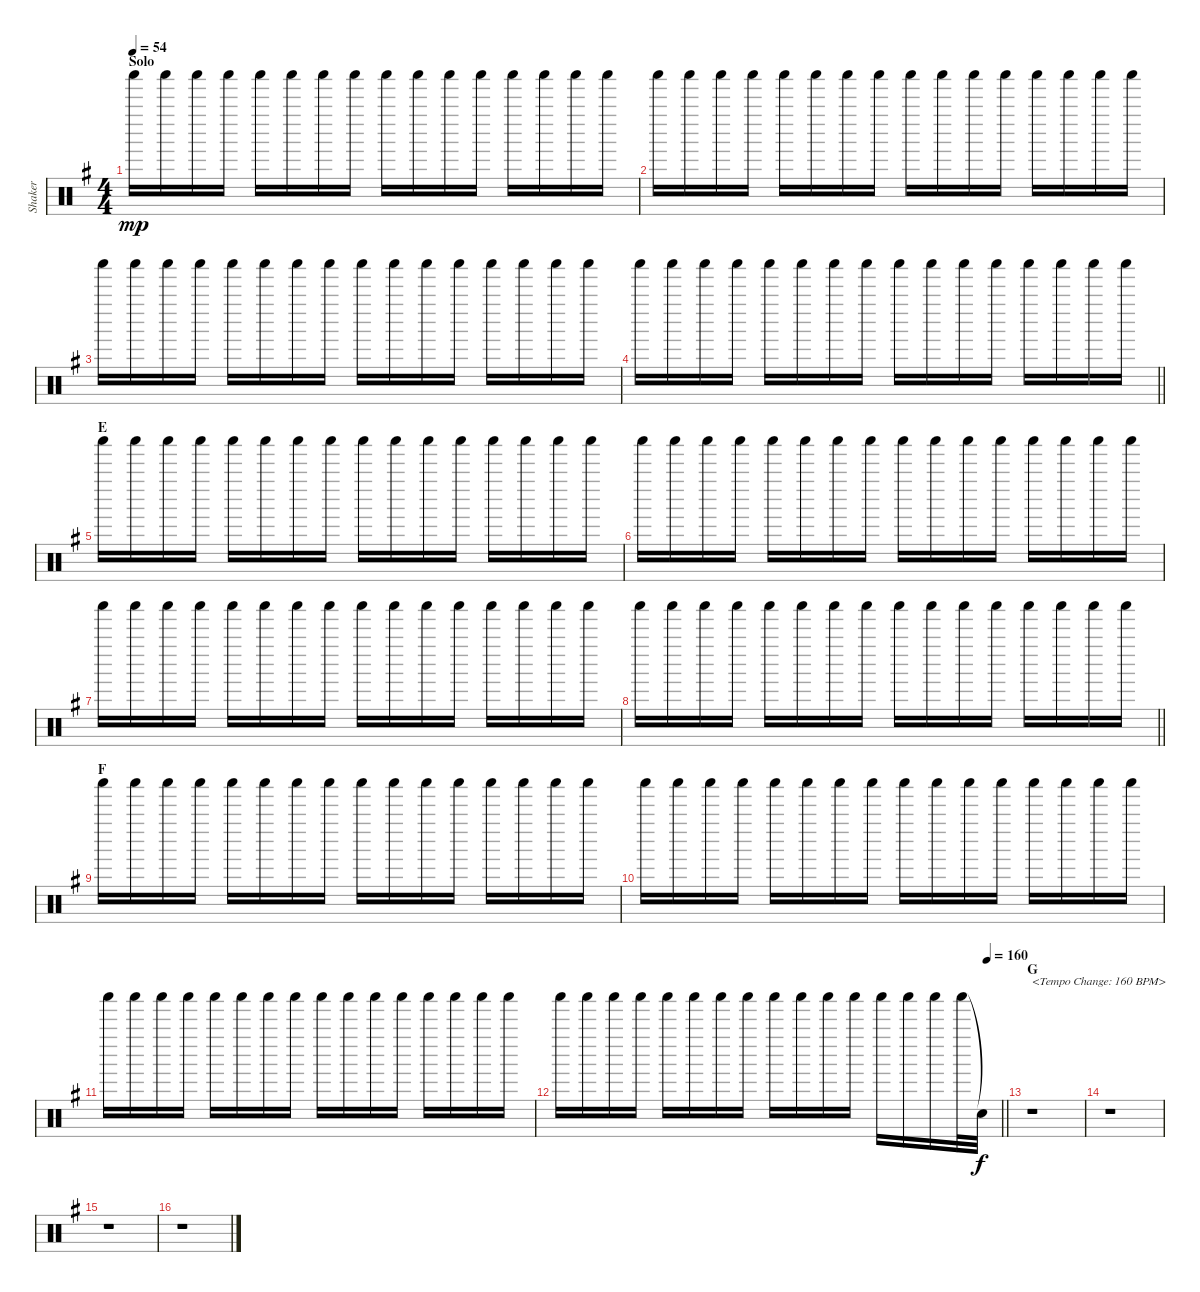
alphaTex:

\track ("Shaker" "Shaker") {instrument percussion}
\staff {score}
\articulation defaults
\ts (4 4)
\section ("" "Solo")
\tempo 54
\clef neutral
\ks g "Shaker (hit)".16{dy mp} "Shaker (hit)".16 "Shaker (hit)".16 "Shaker (hit)".16 "Shaker (hit)".16 "Shaker (hit)".16 "Shaker (hit)".16 "Shaker (hit)".16 "Shaker (hit)".16 "Shaker (hit)".16 "Shaker (hit)".16 "Shaker (hit)".16 "Shaker (hit)".16 "Shaker (hit)".16 "Shaker (hit)".16 "Shaker (hit)".16
|
"Shaker (hit)".16 "Shaker (hit)".16 "Shaker (hit)".16 "Shaker (hit)".16 "Shaker (hit)".16 "Shaker (hit)".16 "Shaker (hit)".16 "Shaker (hit)".16 "Shaker (hit)".16 "Shaker (hit)".16 "Shaker (hit)".16 "Shaker (hit)".16 "Shaker (hit)".16 "Shaker (hit)".16 "Shaker (hit)".16 "Shaker (hit)".16 |
"Shaker (hit)".16 "Shaker (hit)".16 "Shaker (hit)".16 "Shaker (hit)".16 "Shaker (hit)".16 "Shaker (hit)".16 "Shaker (hit)".16 "Shaker (hit)".16 "Shaker (hit)".16 "Shaker (hit)".16 "Shaker (hit)".16 "Shaker (hit)".16 "Shaker (hit)".16 "Shaker (hit)".16 "Shaker (hit)".16 "Shaker (hit)".16 |
\barLineRight lightlight "Shaker (hit)".16 "Shaker (hit)".16 "Shaker (hit)".16 "Shaker (hit)".16 "Shaker (hit)".16 "Shaker (hit)".16 "Shaker (hit)".16 "Shaker (hit)".16 "Shaker (hit)".16 "Shaker (hit)".16 "Shaker (hit)".16 "Shaker (hit)".16 "Shaker (hit)".16 "Shaker (hit)".16 "Shaker (hit)".16 "Shaker (hit)".16
|
\section ("" "E")
"Shaker (hit)".16 "Shaker (hit)".16 "Shaker (hit)".16 "Shaker (hit)".16 "Shaker (hit)".16 "Shaker (hit)".16 "Shaker (hit)".16 "Shaker (hit)".16 "Shaker (hit)".16 "Shaker (hit)".16 "Shaker (hit)".16 "Shaker (hit)".16 "Shaker (hit)".16 "Shaker (hit)".16 "Shaker (hit)".16 "Shaker (hit)".16 |
"Shaker (hit)".16 "Shaker (hit)".16 "Shaker (hit)".16 "Shaker (hit)".16 "Shaker (hit)".16 "Shaker (hit)".16 "Shaker (hit)".16 "Shaker (hit)".16 "Shaker (hit)".16 "Shaker (hit)".16 "Shaker (hit)".16 "Shaker (hit)".16 "Shaker (hit)".16 "Shaker (hit)".16 "Shaker (hit)".16 "Shaker (hit)".16 |
"Shaker (hit)".16 "Shaker (hit)".16 "Shaker (hit)".16 "Shaker (hit)".16 "Shaker (hit)".16 "Shaker (hit)".16 "Shaker (hit)".16 "Shaker (hit)".16 "Shaker (hit)".16 "Shaker (hit)".16 "Shaker (hit)".16 "Shaker (hit)".16 "Shaker (hit)".16 "Shaker (hit)".16 "Shaker (hit)".16 "Shaker (hit)".16 |
\barLineRight lightlight "Shaker (hit)".16 "Shaker (hit)".16 "Shaker (hit)".16 "Shaker (hit)".16 "Shaker (hit)".16 "Shaker (hit)".16 "Shaker (hit)".16 "Shaker (hit)".16 "Shaker (hit)".16 "Shaker (hit)".16 "Shaker (hit)".16 "Shaker (hit)".16 "Shaker (hit)".16 "Shaker (hit)".16 "Shaker (hit)".16 "Shaker (hit)".16
|
\section ("" "F")
"Shaker (hit)".16 "Shaker (hit)".16 "Shaker (hit)".16 "Shaker (hit)".16 "Shaker (hit)".16 "Shaker (hit)".16 "Shaker (hit)".16 "Shaker (hit)".16 "Shaker (hit)".16 "Shaker (hit)".16 "Shaker (hit)".16 "Shaker (hit)".16 "Shaker (hit)".16 "Shaker (hit)".16 "Shaker (hit)".16 "Shaker (hit)".16 |
"Shaker (hit)".16 "Shaker (hit)".16 "Shaker (hit)".16 "Shaker (hit)".16 "Shaker (hit)".16 "Shaker (hit)".16 "Shaker (hit)".16 "Shaker (hit)".16 "Shaker (hit)".16 "Shaker (hit)".16 "Shaker (hit)".16 "Shaker (hit)".16 "Shaker (hit)".16 "Shaker (hit)".16 "Shaker (hit)".16 "Shaker (hit)".16 |
"Shaker (hit)".16 "Shaker (hit)".16 "Shaker (hit)".16 "Shaker (hit)".16 "Shaker (hit)".16 "Shaker (hit)".16 "Shaker (hit)".16 "Shaker (hit)".16 "Shaker (hit)".16 "Shaker (hit)".16 "Shaker (hit)".16 "Shaker (hit)".16 "Shaker (hit)".16 "Shaker (hit)".16 "Shaker (hit)".16 "Shaker (hit)".16 |
\tempo (160 0.96875)
\barLineRight lightlight "Shaker (hit)".16 "Shaker (hit)".16 "Shaker (hit)".16 "Shaker (hit)".16 "Shaker (hit)".16 "Shaker (hit)".16 "Shaker (hit)".16 "Shaker (hit)".16 "Shaker (hit)".16 "Shaker (hit)".16 "Shaker (hit)".16 "Shaker (hit)".16 "Shaker (hit)".16 "Shaker (hit)".16 "Shaker (hit)".16 "Shaker (hit)".32 "Snare (hit)"{t}.32{dy f}
|
\section ("" "G")
\ks eminor
r.1{txt "<Tempo Change: 160 BPM>"} |
r.1 |
r.1 |
r.1
